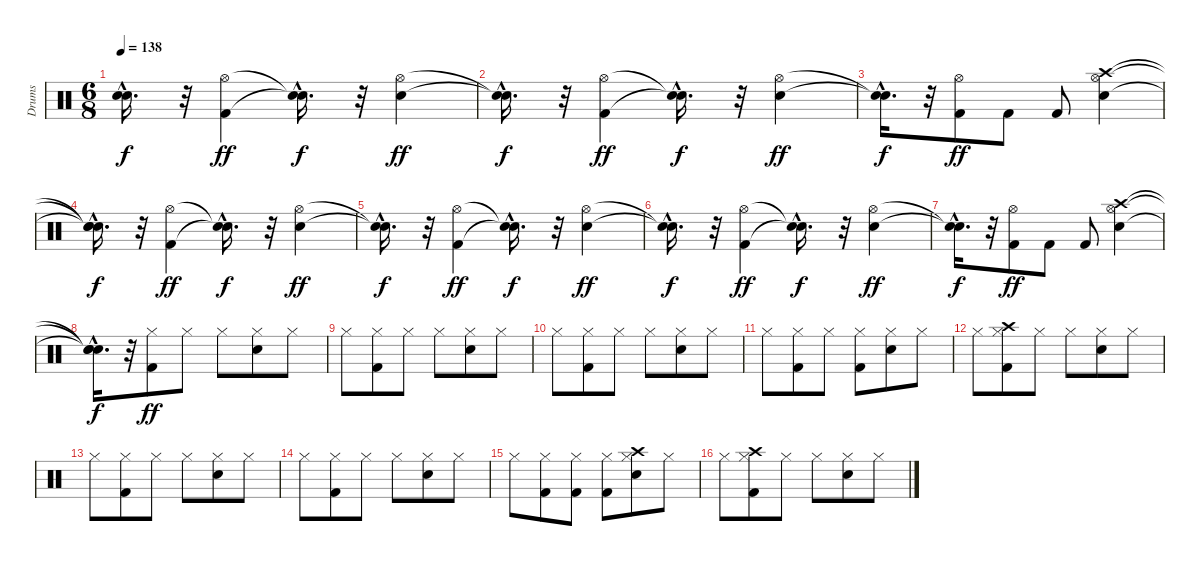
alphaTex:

\track ("Drums" "Drums") {instrument percussion}
\staff {score}
\articulation defaults
\ts (6 8)
\tempo 138
\clef neutral
\ks c
("Snare (hit)"{hac t} "Snare (hit)"{hac t}).16{d dy f} r.32 ("Kick (hit) 2" "Hi-Hat (open)").4{dy ff} ("Snare (hit)"{hac t} "Snare (hit)"{hac t}).16{d dy f} r.32 ("Snare (hit) 2" "Hi-Hat (open)").4{dy ff} |
("Snare (hit)"{hac t} "Snare (hit)"{hac t}).16{d dy f} r.32 ("Kick (hit) 2" "Hi-Hat (open)").4{dy ff} ("Snare (hit)"{hac t} "Snare (hit)"{hac t}).16{d dy f} r.32 ("Snare (hit) 2" "Hi-Hat (open)").4{dy ff} |
("Snare (hit)"{hac t} "Snare (hit)"{hac t}).16{d dy f} r.32 ("Kick (hit) 2" "Hi-Hat (open)").8{dy ff} "Kick (hit) 2".8 "Kick (hit) 2".8 ("Snare (hit) 2" "Hi-Hat (open)" "Crash high (hit)").4 |
("Snare (hit)"{hac t} "Snare (hit)"{hac t} "Snare (hit)"{hac t}).16{d dy f} r.32 ("Kick (hit) 2" "Hi-Hat (open)").4{dy ff} ("Snare (hit)"{hac t} "Snare (hit)"{hac t}).16{d dy f} r.32 ("Snare (hit) 2" "Hi-Hat (open)").4{dy ff} |
("Snare (hit)"{hac t} "Snare (hit)"{hac t}).16{d dy f} r.32 ("Kick (hit) 2" "Hi-Hat (open)").4{dy ff} ("Snare (hit)"{hac t} "Snare (hit)"{hac t}).16{d dy f} r.32 ("Snare (hit) 2" "Hi-Hat (open)").4{dy ff} |
("Snare (hit)"{hac t} "Snare (hit)"{hac t}).16{d dy f} r.32 ("Kick (hit) 2" "Hi-Hat (open)").4{dy ff} ("Snare (hit)"{hac t} "Snare (hit)"{hac t}).16{d dy f} r.32 ("Snare (hit) 2" "Hi-Hat (open)").4{dy ff} |
("Snare (hit)"{hac t} "Snare (hit)"{hac t}).16{d dy f} r.32 ("Kick (hit) 2" "Hi-Hat (open)").8{dy ff} "Kick (hit) 2".8 "Kick (hit) 2".8 ("Snare (hit) 2" "Hi-Hat (open)" "Crash high (hit)").4 |
("Snare (hit)"{hac t} "Snare (hit)"{hac t} "Snare (hit)"{hac t}).16{d dy f} r.32 ("Kick (hit) 2" "Hi-Hat (closed)").8{dy ff} "Hi-Hat (closed)".8 "Hi-Hat (closed)".8 ("Snare (hit) 2" "Hi-Hat (closed)").8 "Hi-Hat (closed)".8 |
"Hi-Hat (closed)".8 ("Kick (hit) 2" "Hi-Hat (closed)").8 "Hi-Hat (closed)".8 "Hi-Hat (closed)".8 ("Snare (hit) 2" "Hi-Hat (closed)").8 "Hi-Hat (closed)".8 |
"Hi-Hat (closed)".8 ("Kick (hit) 2" "Hi-Hat (closed)").8 "Hi-Hat (closed)".8 "Hi-Hat (closed)".8 ("Snare (hit) 2" "Hi-Hat (closed)").8 "Hi-Hat (closed)".8 |
"Hi-Hat (closed)".8 ("Kick (hit) 2" "Hi-Hat (closed)").8 "Hi-Hat (closed)".8 ("Kick (hit) 2" "Hi-Hat (closed)").8 ("Snare (hit) 2" "Hi-Hat (closed)").8 "Hi-Hat (closed)".8 |
"Hi-Hat (closed)".8 ("Kick (hit) 2" "Hi-Hat (closed)" "Crash high (hit)").8 "Hi-Hat (closed)".8 "Hi-Hat (closed)".8 ("Snare (hit) 2" "Hi-Hat (closed)").8 "Hi-Hat (closed)".8 |
"Hi-Hat (closed)".8 ("Kick (hit) 2" "Hi-Hat (closed)").8 "Hi-Hat (closed)".8 "Hi-Hat (closed)".8 ("Snare (hit) 2" "Hi-Hat (closed)").8 "Hi-Hat (closed)".8 |
"Hi-Hat (closed)".8 ("Kick (hit) 2" "Hi-Hat (closed)").8 "Hi-Hat (closed)".8 "Hi-Hat (closed)".8 ("Snare (hit) 2" "Hi-Hat (closed)").8 "Hi-Hat (closed)".8 |
"Hi-Hat (closed)".8 ("Kick (hit) 2" "Hi-Hat (closed)").8 ("Kick (hit) 2" "Hi-Hat (closed)").8 ("Kick (hit) 2" "Hi-Hat (closed)").8 ("Snare (hit) 2" "Hi-Hat (closed)" "Crash high (hit)").8 "Hi-Hat (closed)".8 |
"Hi-Hat (closed)".8 ("Kick (hit) 2" "Hi-Hat (closed)" "Crash high (hit)").8 "Hi-Hat (closed)".8 "Hi-Hat (closed)".8 ("Snare (hit) 2" "Hi-Hat (closed)").8 "Hi-Hat (closed)".8
